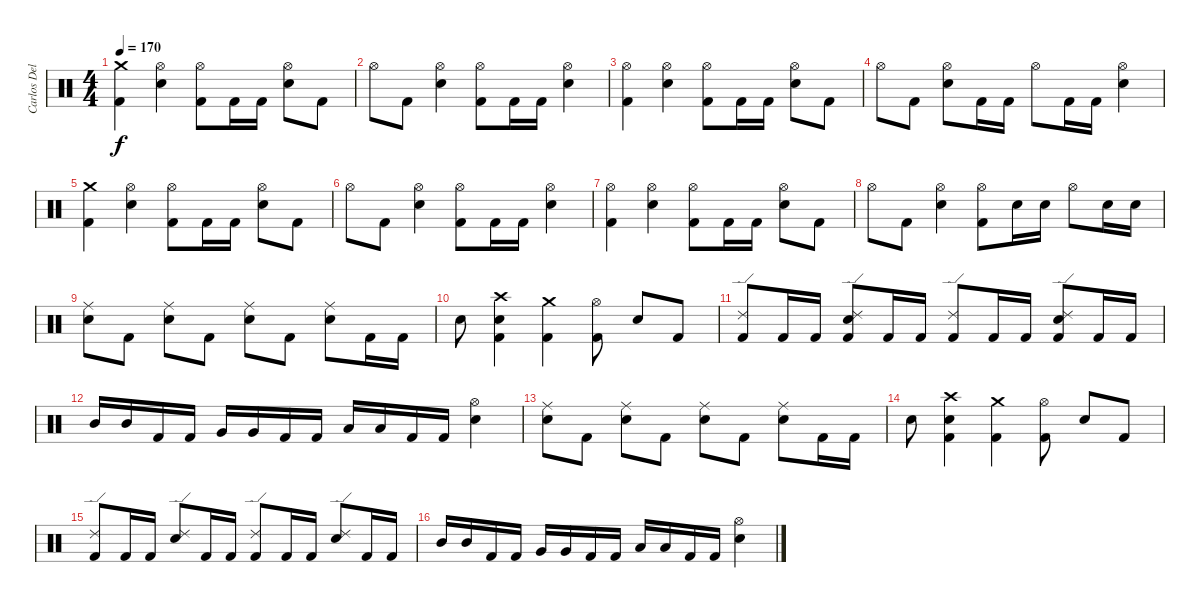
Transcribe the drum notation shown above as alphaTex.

\track ("Carlos Delgado" "Carlos Del") {instrument percussion}
\staff {score}
\articulation defaults
\ts (4 4)
\tempo 170
\clef neutral
\ks c
("Crash medium (hit)" "Kick (hit) 2").4{dy f} ("Hi-Hat (open)" "Electric Snare (hit)").4 ("Hi-Hat (open)" "Kick (hit) 2").8 "Kick (hit) 2".16 "Kick (hit) 2".16 ("Hi-Hat (open)" "Electric Snare (hit)").8 "Kick (hit) 2".8 |
"Hi-Hat (open)".8 "Kick (hit) 2".8 ("Hi-Hat (open)" "Electric Snare (hit)").4 ("Hi-Hat (open)" "Kick (hit) 2").8 "Kick (hit) 2".16 "Kick (hit) 2".16 ("Hi-Hat (open)" "Electric Snare (hit)").4 |
("Hi-Hat (open)" "Kick (hit) 2").4 ("Hi-Hat (open)" "Electric Snare (hit)").4 ("Hi-Hat (open)" "Kick (hit) 2").8 "Kick (hit) 2".16 "Kick (hit) 2".16 ("Hi-Hat (open)" "Electric Snare (hit)").8 "Kick (hit) 2".8 |
"Hi-Hat (open)".8 "Kick (hit) 2".8 ("Hi-Hat (open)" "Electric Snare (hit)").8 "Kick (hit) 2".16 "Kick (hit) 2".16 "Hi-Hat (open)".8 "Kick (hit) 2".16 "Kick (hit) 2".16 ("Hi-Hat (open)" "Electric Snare (hit)").4 |
("Crash medium (hit)" "Kick (hit) 2").4 ("Hi-Hat (open)" "Electric Snare (hit)").4 ("Hi-Hat (open)" "Kick (hit) 2").8 "Kick (hit) 2".16 "Kick (hit) 2".16 ("Hi-Hat (open)" "Electric Snare (hit)").8 "Kick (hit) 2".8 |
"Hi-Hat (open)".8 "Kick (hit) 2".8 ("Hi-Hat (open)" "Electric Snare (hit)").4 ("Hi-Hat (open)" "Kick (hit) 2").8 "Kick (hit) 2".16 "Kick (hit) 2".16 ("Hi-Hat (open)" "Electric Snare (hit)").4 |
("Hi-Hat (open)" "Kick (hit) 2").4 ("Hi-Hat (open)" "Electric Snare (hit)").4 ("Hi-Hat (open)" "Kick (hit) 2").8 "Kick (hit) 2".16 "Kick (hit) 2".16 ("Hi-Hat (open)" "Electric Snare (hit)").8 "Kick (hit) 2".8 |
"Hi-Hat (open)".8 "Kick (hit) 2".8 ("Hi-Hat (open)" "Electric Snare (hit)").4 ("Hi-Hat (open)" "Kick (hit) 2").8 "Electric Snare (hit)".16 "Electric Snare (hit)".16 "Hi-Hat (open)".8 "Electric Snare (hit)".16 "Electric Snare (hit)".16 |
("Ride (middle)" "Electric Snare (hit)").8 "Kick (hit) 2".8 ("Ride (middle)" "Electric Snare (hit)").8 "Kick (hit) 2".8 ("Ride (middle)" "Electric Snare (hit)").8 "Kick (hit) 2".8 ("Ride (middle)" "Electric Snare (hit)").8 "Kick (hit) 2".16 "Kick (hit) 2".16 |
"Electric Snare (hit)".8 ("Crash high (hit)" "Electric Snare (hit)" "Kick (hit) 2").4 ("Crash medium (hit)" "Kick (hit) 2").4 ("Hi-Hat (open)" "Kick (hit) 2").8 "Electric Snare (hit)".8 "Kick (hit) 2".8 |
("Ride (edge) 2" "Kick (hit) 2").8 "Kick (hit) 2".16 "Kick (hit) 2".16 ("Ride (edge) 2" "Electric Snare (hit)" "Kick (hit) 2").8 "Kick (hit) 2".16 "Kick (hit) 2".16 ("Ride (edge) 2" "Kick (hit) 2").8 "Kick (hit) 2".16 "Kick (hit) 2".16 ("Ride (edge) 2" "Electric Snare (hit)" "Kick (hit) 2").8 "Kick (hit) 2".16 "Kick (hit) 2".16 |
"Mid Tom (hit)".16 "Mid Tom (hit)".16 "Kick (hit) 2".16 "Kick (hit) 2".16 "Very Low Tom (hit)".16 "Very Low Tom (hit)".16 "Kick (hit) 2".16 "Kick (hit) 2".16 "Low Tom (hit)".16 "Low Tom (hit)".16 "Kick (hit) 2".16 "Kick (hit) 2".16 ("Hi-Hat (open)" "Electric Snare (hit)").4 |
("Ride (middle)" "Electric Snare (hit)").8 "Kick (hit) 2".8 ("Ride (middle)" "Electric Snare (hit)").8 "Kick (hit) 2".8 ("Ride (middle)" "Electric Snare (hit)").8 "Kick (hit) 2".8 ("Ride (middle)" "Electric Snare (hit)").8 "Kick (hit) 2".16 "Kick (hit) 2".16 |
"Electric Snare (hit)".8 ("Crash high (hit)" "Electric Snare (hit)" "Kick (hit) 2").4 ("Crash medium (hit)" "Kick (hit) 2").4 ("Hi-Hat (open)" "Kick (hit) 2").8 "Electric Snare (hit)".8 "Kick (hit) 2".8 |
("Ride (edge) 2" "Kick (hit) 2").8 "Kick (hit) 2".16 "Kick (hit) 2".16 ("Ride (edge) 2" "Electric Snare (hit)").8 "Kick (hit) 2".16 "Kick (hit) 2".16 ("Ride (edge) 2" "Kick (hit) 2").8 "Kick (hit) 2".16 "Kick (hit) 2".16 ("Ride (edge) 2" "Electric Snare (hit)").8 "Kick (hit) 2".16 "Kick (hit) 2".16 |
"Mid Tom (hit)".16 "Mid Tom (hit)".16 "Kick (hit) 2".16 "Kick (hit) 2".16 "Very Low Tom (hit)".16 "Very Low Tom (hit)".16 "Kick (hit) 2".16 "Kick (hit) 2".16 "Low Tom (hit)".16 "Low Tom (hit)".16 "Kick (hit) 2".16 "Kick (hit) 2".16 ("Hi-Hat (open)" "Electric Snare (hit)").4
